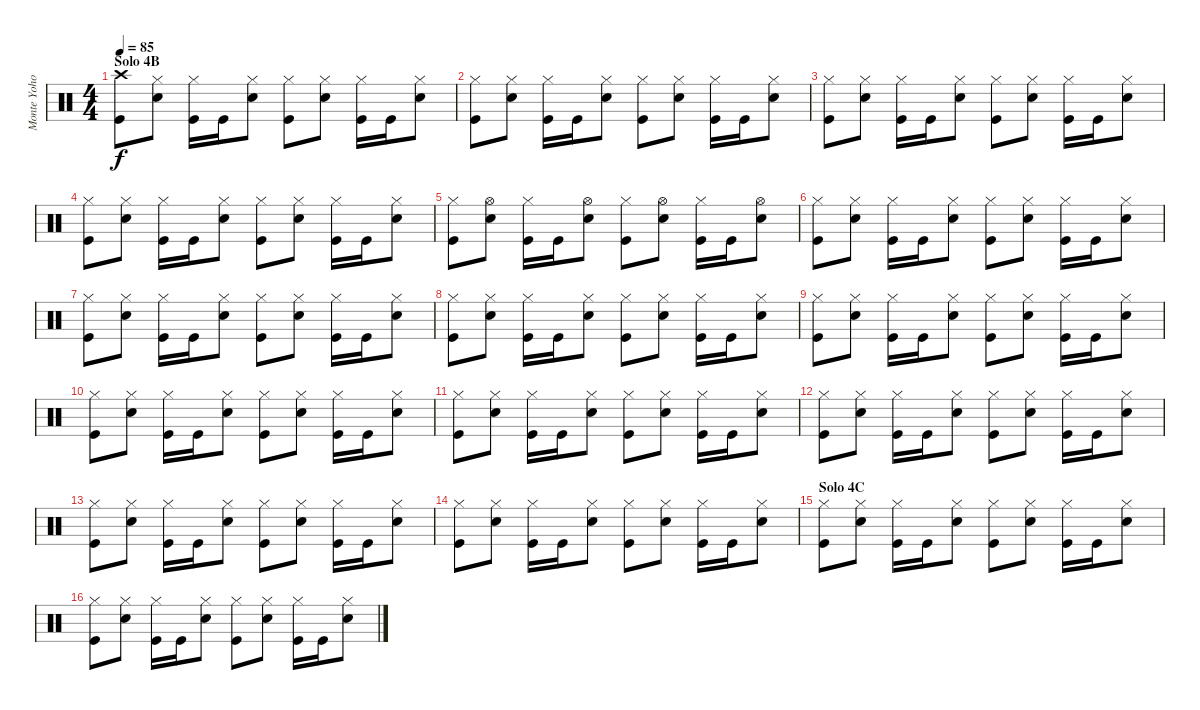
\track ("Monte Yoho - Drums" "Monte Yoho") {instrument percussion}
\staff {score}
\articulation defaults
\ts (4 4)
\section ("" "Solo 4B")
\tempo 85
\clef neutral
\ks c
("Crash high (hit)" "Kick (hit)").8{dy f} ("Hi-Hat (closed)" "Snare (hit) 2").8 ("Hi-Hat (closed)" "Kick (hit)").16 "Kick (hit)".16 ("Hi-Hat (closed)" "Snare (hit) 2").8 ("Hi-Hat (closed)" "Kick (hit)").8 ("Hi-Hat (closed)" "Snare (hit) 2").8 ("Hi-Hat (closed)" "Kick (hit)").16 "Kick (hit)".16 ("Hi-Hat (closed)" "Snare (hit) 2").8 |
("Hi-Hat (closed)" "Kick (hit)").8 ("Hi-Hat (closed)" "Snare (hit) 2").8 ("Hi-Hat (closed)" "Kick (hit)").16 "Kick (hit)".16 ("Hi-Hat (closed)" "Snare (hit) 2").8 ("Hi-Hat (closed)" "Kick (hit)").8 ("Hi-Hat (closed)" "Snare (hit) 2").8 ("Hi-Hat (closed)" "Kick (hit)").16 "Kick (hit)".16 ("Hi-Hat (closed)" "Snare (hit) 2").8 |
("Hi-Hat (closed)" "Kick (hit)").8 ("Hi-Hat (closed)" "Snare (hit) 2").8 ("Hi-Hat (closed)" "Kick (hit)").16 "Kick (hit)".16 ("Hi-Hat (closed)" "Snare (hit) 2").8 ("Hi-Hat (closed)" "Kick (hit)").8 ("Hi-Hat (closed)" "Snare (hit) 2").8 ("Hi-Hat (closed)" "Kick (hit)").16 "Kick (hit)".16 ("Hi-Hat (closed)" "Snare (hit) 2").8 |
("Hi-Hat (closed)" "Kick (hit)").8 ("Hi-Hat (closed)" "Snare (hit) 2").8 ("Hi-Hat (closed)" "Kick (hit)").16 "Kick (hit)".16 ("Hi-Hat (closed)" "Snare (hit) 2").8 ("Hi-Hat (closed)" "Kick (hit)").8 ("Hi-Hat (closed)" "Snare (hit) 2").8 ("Hi-Hat (closed)" "Kick (hit)").16 "Kick (hit)".16 ("Hi-Hat (closed)" "Snare (hit) 2").8 |
("Hi-Hat (closed)" "Kick (hit)").8 ("Hi-Hat (open)" "Snare (hit) 2").8 ("Hi-Hat (closed)" "Kick (hit)").16 "Kick (hit)".16 ("Hi-Hat (open)" "Snare (hit) 2").8 ("Hi-Hat (closed)" "Kick (hit)").8 ("Hi-Hat (open)" "Snare (hit) 2").8 ("Hi-Hat (closed)" "Kick (hit)").16 "Kick (hit)".16 ("Hi-Hat (open)" "Snare (hit) 2").8 |
("Hi-Hat (closed)" "Kick (hit)").8 ("Hi-Hat (closed)" "Snare (hit) 2").8 ("Hi-Hat (closed)" "Kick (hit)").16 "Kick (hit)".16 ("Hi-Hat (closed)" "Snare (hit) 2").8 ("Hi-Hat (closed)" "Kick (hit)").8 ("Hi-Hat (closed)" "Snare (hit) 2").8 ("Hi-Hat (closed)" "Kick (hit)").16 "Kick (hit)".16 ("Hi-Hat (closed)" "Snare (hit) 2").8 |
("Hi-Hat (closed)" "Kick (hit)").8 ("Hi-Hat (closed)" "Snare (hit) 2").8 ("Hi-Hat (closed)" "Kick (hit)").16 "Kick (hit)".16 ("Hi-Hat (closed)" "Snare (hit) 2").8 ("Hi-Hat (closed)" "Kick (hit)").8 ("Hi-Hat (closed)" "Snare (hit) 2").8 ("Hi-Hat (closed)" "Kick (hit)").16 "Kick (hit)".16 ("Hi-Hat (closed)" "Snare (hit) 2").8 |
("Hi-Hat (closed)" "Kick (hit)").8 ("Hi-Hat (closed)" "Snare (hit) 2").8 ("Hi-Hat (closed)" "Kick (hit)").16 "Kick (hit)".16 ("Hi-Hat (closed)" "Snare (hit) 2").8 ("Hi-Hat (closed)" "Kick (hit)").8 ("Hi-Hat (closed)" "Snare (hit) 2").8 ("Hi-Hat (closed)" "Kick (hit)").16 "Kick (hit)".16 ("Hi-Hat (closed)" "Snare (hit) 2").8 |
("Hi-Hat (closed)" "Kick (hit)").8 ("Hi-Hat (closed)" "Snare (hit) 2").8 ("Hi-Hat (closed)" "Kick (hit)").16 "Kick (hit)".16 ("Hi-Hat (closed)" "Snare (hit) 2").8 ("Hi-Hat (closed)" "Kick (hit)").8 ("Hi-Hat (closed)" "Snare (hit) 2").8 ("Hi-Hat (closed)" "Kick (hit)").16 "Kick (hit)".16 ("Hi-Hat (closed)" "Snare (hit) 2").8 |
("Hi-Hat (closed)" "Kick (hit)").8 ("Hi-Hat (closed)" "Snare (hit) 2").8 ("Hi-Hat (closed)" "Kick (hit)").16 "Kick (hit)".16 ("Hi-Hat (closed)" "Snare (hit) 2").8 ("Hi-Hat (closed)" "Kick (hit)").8 ("Hi-Hat (closed)" "Snare (hit) 2").8 ("Hi-Hat (closed)" "Kick (hit)").16 "Kick (hit)".16 ("Hi-Hat (closed)" "Snare (hit) 2").8 |
("Hi-Hat (closed)" "Kick (hit)").8 ("Hi-Hat (closed)" "Snare (hit) 2").8 ("Hi-Hat (closed)" "Kick (hit)").16 "Kick (hit)".16 ("Hi-Hat (closed)" "Snare (hit) 2").8 ("Hi-Hat (closed)" "Kick (hit)").8 ("Hi-Hat (closed)" "Snare (hit) 2").8 ("Hi-Hat (closed)" "Kick (hit)").16 "Kick (hit)".16 ("Hi-Hat (closed)" "Snare (hit) 2").8 |
("Hi-Hat (closed)" "Kick (hit)").8 ("Hi-Hat (closed)" "Snare (hit) 2").8 ("Hi-Hat (closed)" "Kick (hit)").16 "Kick (hit)".16 ("Hi-Hat (closed)" "Snare (hit) 2").8 ("Hi-Hat (closed)" "Kick (hit)").8 ("Hi-Hat (closed)" "Snare (hit) 2").8 ("Hi-Hat (closed)" "Kick (hit)").16 "Kick (hit)".16 ("Hi-Hat (closed)" "Snare (hit) 2").8 |
("Hi-Hat (closed)" "Kick (hit)").8 ("Hi-Hat (closed)" "Snare (hit) 2").8 ("Hi-Hat (closed)" "Kick (hit)").16 "Kick (hit)".16 ("Hi-Hat (closed)" "Snare (hit) 2").8 ("Hi-Hat (closed)" "Kick (hit)").8 ("Hi-Hat (closed)" "Snare (hit) 2").8 ("Hi-Hat (closed)" "Kick (hit)").16 "Kick (hit)".16 ("Hi-Hat (closed)" "Snare (hit) 2").8 |
("Hi-Hat (closed)" "Kick (hit)").8 ("Hi-Hat (closed)" "Snare (hit) 2").8 ("Hi-Hat (closed)" "Kick (hit)").16 "Kick (hit)".16 ("Hi-Hat (closed)" "Snare (hit) 2").8 ("Hi-Hat (closed)" "Kick (hit)").8 ("Hi-Hat (closed)" "Snare (hit) 2").8 ("Hi-Hat (closed)" "Kick (hit)").16 "Kick (hit)".16 ("Hi-Hat (closed)" "Snare (hit) 2").8 |
\section ("" "Solo 4C")
("Hi-Hat (closed)" "Kick (hit)").8 ("Hi-Hat (closed)" "Snare (hit) 2").8 ("Hi-Hat (closed)" "Kick (hit)").16 "Kick (hit)".16 ("Hi-Hat (closed)" "Snare (hit) 2").8 ("Hi-Hat (closed)" "Kick (hit)").8 ("Hi-Hat (closed)" "Snare (hit) 2").8 ("Hi-Hat (closed)" "Kick (hit)").16 "Kick (hit)".16 ("Hi-Hat (closed)" "Snare (hit) 2").8 |
("Hi-Hat (closed)" "Kick (hit)").8 ("Hi-Hat (closed)" "Snare (hit) 2").8 ("Hi-Hat (closed)" "Kick (hit)").16 "Kick (hit)".16 ("Hi-Hat (closed)" "Snare (hit) 2").8 ("Hi-Hat (closed)" "Kick (hit)").8 ("Hi-Hat (closed)" "Snare (hit) 2").8 ("Hi-Hat (closed)" "Kick (hit)").16 "Kick (hit)".16 ("Hi-Hat (closed)" "Snare (hit) 2").8
